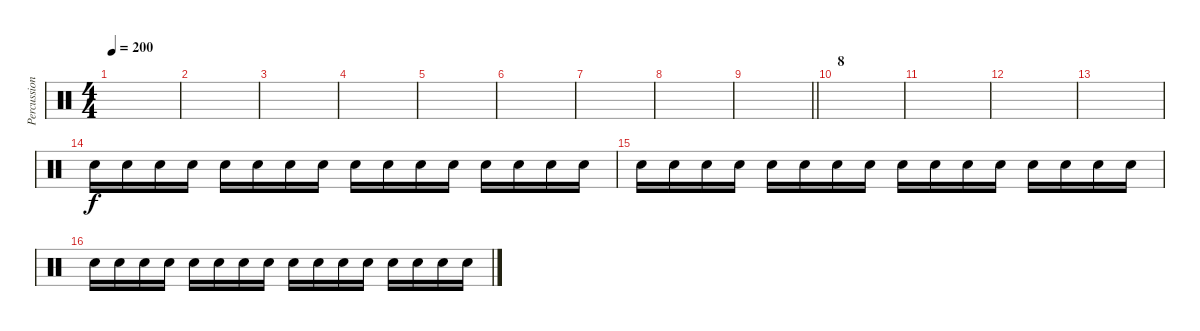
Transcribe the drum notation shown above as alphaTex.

\track ("Percussion" "Percussion") {instrument percussion}
\staff {score}
\articulation defaults
\ts (4 4)
\tempo 200
\clef neutral
\ks c
|
|
|
|
|
|
|
|
\barLineRight lightlight
|
\section ("" "8")
|
|
|
|
"Snare (hit) 2".16 "Snare (hit) 2".16 "Snare (hit) 2".16 "Snare (hit) 2".16 "Snare (hit) 2".16 "Snare (hit) 2".16 "Snare (hit) 2".16 "Snare (hit) 2".16 "Snare (hit) 2".16 "Snare (hit) 2".16 "Snare (hit) 2".16 "Snare (hit) 2".16 "Snare (hit) 2".16 "Snare (hit) 2".16 "Snare (hit) 2".16 "Snare (hit) 2".16 |
"Snare (hit) 2".16 "Snare (hit) 2".16 "Snare (hit) 2".16 "Snare (hit) 2".16 "Snare (hit) 2".16 "Snare (hit) 2".16 "Snare (hit) 2".16 "Snare (hit) 2".16 "Snare (hit) 2".16 "Snare (hit) 2".16 "Snare (hit) 2".16 "Snare (hit) 2".16 "Snare (hit) 2".16 "Snare (hit) 2".16 "Snare (hit) 2".16 "Snare (hit) 2".16 |
"Snare (hit) 2".16 "Snare (hit) 2".16 "Snare (hit) 2".16 "Snare (hit) 2".16 "Snare (hit) 2".16 "Snare (hit) 2".16 "Snare (hit) 2".16 "Snare (hit) 2".16 "Snare (hit) 2".16 "Snare (hit) 2".16 "Snare (hit) 2".16 "Snare (hit) 2".16 "Snare (hit) 2".16 "Snare (hit) 2".16 "Snare (hit) 2".16 "Snare (hit) 2".16
